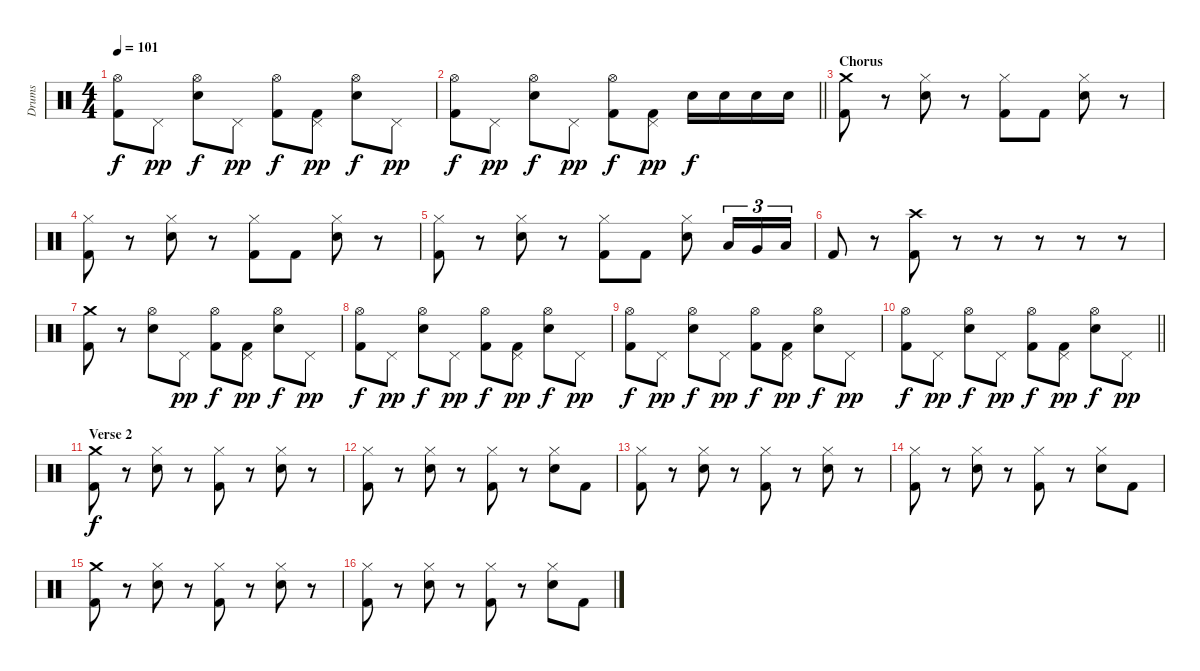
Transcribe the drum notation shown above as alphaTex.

\track ("Drums" "Drums") {instrument percussion}
\staff {score}
\articulation defaults
\ts (4 4)
\tempo 101
\clef neutral
\ks c
("Hi-Hat (open)" "Kick (hit) 2").8{dy f} "Pedal Hi-Hat (hit)".8{dy pp} ("Hi-Hat (open)" "Snare (hit) 2").8{dy f} "Pedal Hi-Hat (hit)".8{dy pp} ("Hi-Hat (open)" "Kick (hit) 2").8{dy f} ("Pedal Hi-Hat (hit)" "Kick (hit) 2").8{dy pp} ("Hi-Hat (open)" "Snare (hit) 2").8{dy f} "Pedal Hi-Hat (hit)".8{dy pp} |
\barLineRight lightlight
("Hi-Hat (open)" "Kick (hit) 2").8{dy f} "Pedal Hi-Hat (hit)".8{dy pp} ("Hi-Hat (open)" "Snare (hit) 2").8{dy f} "Pedal Hi-Hat (hit)".8{dy pp} ("Hi-Hat (open)" "Kick (hit) 2").8{dy f} ("Pedal Hi-Hat (hit)" "Kick (hit) 2").8{dy pp} "Snare (hit) 2".16{dy f} "Snare (hit) 2".16 "Snare (hit) 2".16 "Snare (hit) 2".16 |
\section ("" "Chorus")
("Crash medium (hit)" "Kick (hit) 2").8 r.8 ("Hi-Hat (closed)" "Snare (hit) 2").8 r.8 ("Hi-Hat (closed)" "Kick (hit) 2").8 "Kick (hit) 2".8 ("Hi-Hat (closed)" "Snare (hit) 2").8 r.8 |
("Hi-Hat (closed)" "Kick (hit) 2").8 r.8 ("Hi-Hat (closed)" "Snare (hit) 2").8 r.8 ("Hi-Hat (closed)" "Kick (hit) 2").8 "Kick (hit) 2".8 ("Hi-Hat (closed)" "Snare (hit) 2").8 r.8 |
("Hi-Hat (closed)" "Kick (hit) 2").8 r.8 ("Hi-Hat (closed)" "Snare (hit) 2").8 r.8 ("Hi-Hat (closed)" "Kick (hit) 2").8 "Kick (hit) 2".8 ("Hi-Hat (closed)" "Snare (hit) 2").8 "Low Tom (hit)".16{tu (3 2)} "Very Low Tom (hit)".16{tu (3 2)} "Low Floor Tom (hit)".16{tu (3 2)} |
"Kick (hit) 2".8 r.8 ("Crash high (hit)" "Kick (hit) 2").8 r.8 r.8 r.8 r.8 r.8 |
("Crash medium (hit)" "Kick (hit) 2").8 r.8 ("Hi-Hat (open)" "Snare (hit) 2").8 "Pedal Hi-Hat (hit)".8{dy pp} ("Hi-Hat (open)" "Kick (hit) 2").8{dy f} ("Pedal Hi-Hat (hit)" "Kick (hit) 2").8{dy pp} ("Hi-Hat (open)" "Snare (hit) 2").8{dy f} "Pedal Hi-Hat (hit)".8{dy pp} |
("Hi-Hat (open)" "Kick (hit) 2").8{dy f} "Pedal Hi-Hat (hit)".8{dy pp} ("Hi-Hat (open)" "Snare (hit) 2").8{dy f} "Pedal Hi-Hat (hit)".8{dy pp} ("Hi-Hat (open)" "Kick (hit) 2").8{dy f} ("Pedal Hi-Hat (hit)" "Kick (hit) 2").8{dy pp} ("Hi-Hat (open)" "Snare (hit) 2").8{dy f} "Pedal Hi-Hat (hit)".8{dy pp} |
("Hi-Hat (open)" "Kick (hit) 2").8{dy f} "Pedal Hi-Hat (hit)".8{dy pp} ("Hi-Hat (open)" "Snare (hit) 2").8{dy f} "Pedal Hi-Hat (hit)".8{dy pp} ("Hi-Hat (open)" "Kick (hit) 2").8{dy f} ("Pedal Hi-Hat (hit)" "Kick (hit) 2").8{dy pp} ("Hi-Hat (open)" "Snare (hit) 2").8{dy f} "Pedal Hi-Hat (hit)".8{dy pp} |
\barLineRight lightlight
("Hi-Hat (open)" "Kick (hit) 2").8{dy f} "Pedal Hi-Hat (hit)".8{dy pp} ("Hi-Hat (open)" "Snare (hit) 2").8{dy f} "Pedal Hi-Hat (hit)".8{dy pp} ("Hi-Hat (open)" "Kick (hit) 2").8{dy f} ("Pedal Hi-Hat (hit)" "Kick (hit) 2").8{dy pp} ("Hi-Hat (open)" "Snare (hit) 2").8{dy f} "Pedal Hi-Hat (hit)".8{dy pp} |
\section ("" "Verse 2")
("Crash medium (hit)" "Kick (hit) 2").8{dy f} r.8 ("Hi-Hat (closed)" "Snare (hit) 2").8 r.8 ("Hi-Hat (closed)" "Kick (hit) 2").8 r.8 ("Hi-Hat (closed)" "Snare (hit) 2").8 r.8 |
("Hi-Hat (closed)" "Kick (hit) 2").8 r.8 ("Hi-Hat (closed)" "Snare (hit) 2").8 r.8 ("Hi-Hat (closed)" "Kick (hit) 2").8 r.8 ("Hi-Hat (closed)" "Snare (hit) 2").8 "Kick (hit) 2".8 |
("Hi-Hat (closed)" "Kick (hit) 2").8 r.8 ("Hi-Hat (closed)" "Snare (hit) 2").8 r.8 ("Hi-Hat (closed)" "Kick (hit) 2").8 r.8 ("Hi-Hat (closed)" "Snare (hit) 2").8 r.8 |
("Hi-Hat (closed)" "Kick (hit) 2").8 r.8 ("Hi-Hat (closed)" "Snare (hit) 2").8 r.8 ("Hi-Hat (closed)" "Kick (hit) 2").8 r.8 ("Hi-Hat (closed)" "Snare (hit) 2").8 "Kick (hit) 2".8 |
("Crash medium (hit)" "Kick (hit) 2").8 r.8 ("Hi-Hat (closed)" "Snare (hit) 2").8 r.8 ("Hi-Hat (closed)" "Kick (hit) 2").8 r.8 ("Hi-Hat (closed)" "Snare (hit) 2").8 r.8 |
("Hi-Hat (closed)" "Kick (hit) 2").8 r.8 ("Hi-Hat (closed)" "Snare (hit) 2").8 r.8 ("Hi-Hat (closed)" "Kick (hit) 2").8 r.8 ("Hi-Hat (closed)" "Snare (hit) 2").8 "Kick (hit) 2".8
